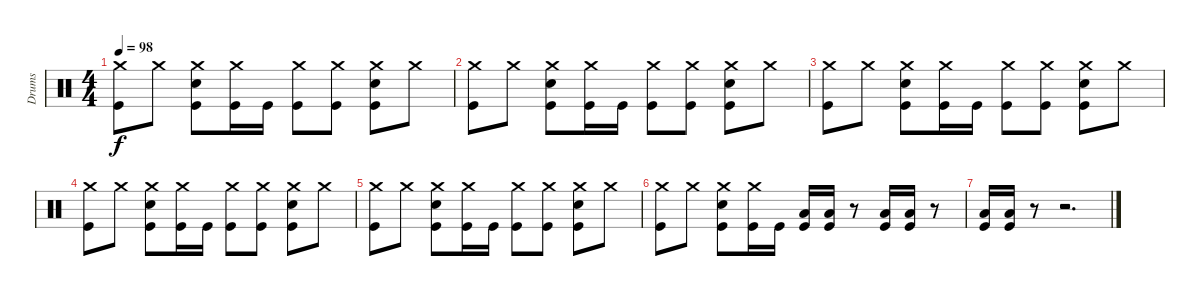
\track ("Drums" "Drums") {instrument percussion}
\staff {score}
\articulation defaults
\ts (4 4)
\tempo 98
\clef neutral
\ks c
("Crash medium (hit)" "Kick (hit)").8{dy f} "Crash medium (hit)".8 ("Crash medium (hit)" "Electric Snare (hit)" "Kick (hit)").8 ("Crash medium (hit)" "Kick (hit)").16 "Kick (hit)".16 ("Crash medium (hit)" "Kick (hit)").8 ("Crash medium (hit)" "Kick (hit)").8 ("Crash medium (hit)" "Electric Snare (hit)" "Kick (hit)").8 "Crash medium (hit)".8 |
("Crash medium (hit)" "Kick (hit)").8 "Crash medium (hit)".8 ("Crash medium (hit)" "Electric Snare (hit)" "Kick (hit)").8 ("Crash medium (hit)" "Kick (hit)").16 "Kick (hit)".16 ("Crash medium (hit)" "Kick (hit)").8 ("Crash medium (hit)" "Kick (hit)").8 ("Crash medium (hit)" "Electric Snare (hit)" "Kick (hit)").8 "Crash medium (hit)".8 |
("Crash medium (hit)" "Kick (hit)").8 "Crash medium (hit)".8 ("Crash medium (hit)" "Electric Snare (hit)" "Kick (hit)").8 ("Crash medium (hit)" "Kick (hit)").16 "Kick (hit)".16 ("Crash medium (hit)" "Kick (hit)").8 ("Crash medium (hit)" "Kick (hit)").8 ("Crash medium (hit)" "Electric Snare (hit)" "Kick (hit)").8 "Crash medium (hit)".8 |
("Crash medium (hit)" "Kick (hit)").8 "Crash medium (hit)".8 ("Crash medium (hit)" "Electric Snare (hit)" "Kick (hit)").8 ("Crash medium (hit)" "Kick (hit)").16 "Kick (hit)".16 ("Crash medium (hit)" "Kick (hit)").8 ("Crash medium (hit)" "Kick (hit)").8 ("Crash medium (hit)" "Electric Snare (hit)" "Kick (hit)").8 "Crash medium (hit)".8 |
("Crash medium (hit)" "Kick (hit)").8 "Crash medium (hit)".8 ("Crash medium (hit)" "Electric Snare (hit)" "Kick (hit)").8 ("Crash medium (hit)" "Kick (hit)").16 "Kick (hit)".16 ("Crash medium (hit)" "Kick (hit)").8 ("Crash medium (hit)" "Kick (hit)").8 ("Crash medium (hit)" "Electric Snare (hit)" "Kick (hit)").8 "Crash medium (hit)".8 |
("Crash medium (hit)" "Kick (hit)").8 "Crash medium (hit)".8 ("Crash medium (hit)" "Electric Snare (hit)" "Kick (hit)").8 ("Crash medium (hit)" "Kick (hit)").16 "Kick (hit)".16 ("Low Tom (hit)" "Kick (hit)").16 ("Low Tom (hit)" "Kick (hit)").16 r.8 ("Low Tom (hit)" "Kick (hit)").16 ("Low Tom (hit)" "Kick (hit)").16 r.8 |
("Low Tom (hit)" "Kick (hit)").16 ("Low Tom (hit)" "Kick (hit)").16 r.8 r.2{d}
